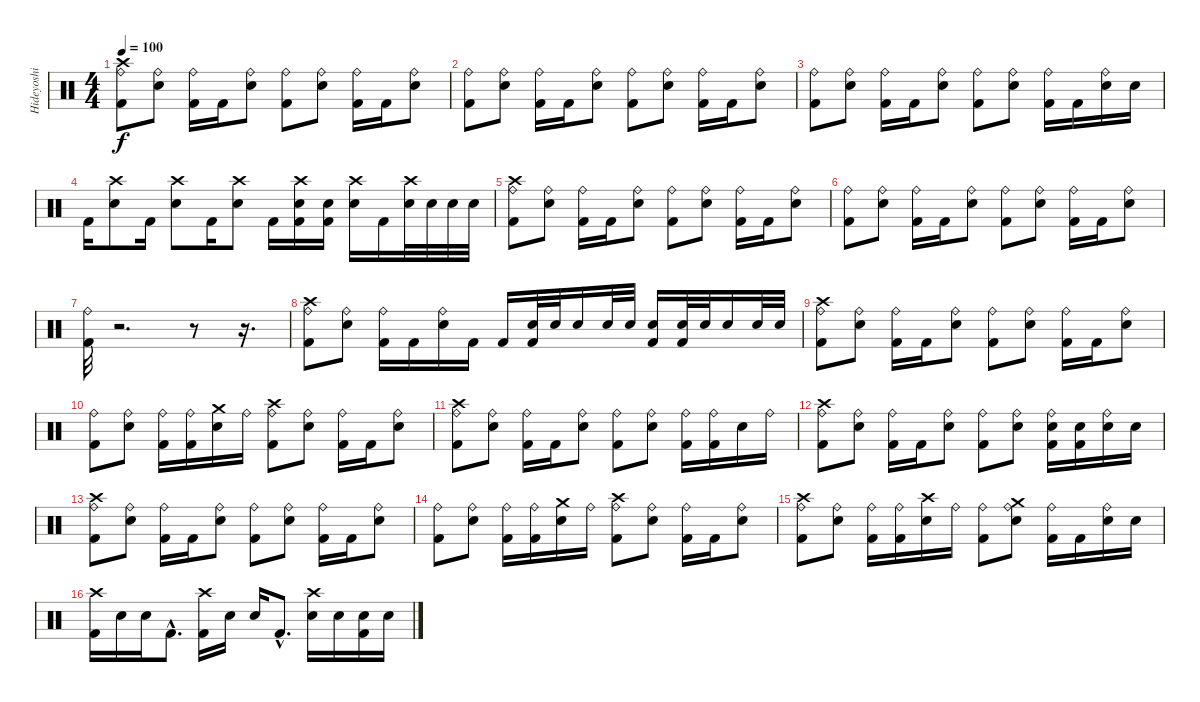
\track ("Hideyoshi" "Hideyoshi") {instrument percussion}
\staff {score}
\articulation defaults
\ts (4 4)
\tempo 100
\clef neutral
\ks c
("Crash high (hit)" "Kick (hit) 2" "Ride (bell)").8{dy f} ("Snare (hit) 2" "Ride (bell)").8 ("Kick (hit) 2" "Ride (bell)").16 "Kick (hit) 2".16 ("Snare (hit) 2" "Ride (bell)").8 ("Kick (hit) 2" "Ride (bell)").8 ("Snare (hit) 2" "Ride (bell)").8 ("Kick (hit) 2" "Ride (bell)").16 "Kick (hit) 2".16 ("Snare (hit) 2" "Ride (bell)").8 |
("Kick (hit) 2" "Ride (bell)").8 ("Snare (hit) 2" "Ride (bell)").8 ("Kick (hit) 2" "Ride (bell)").16 "Kick (hit) 2".16 ("Snare (hit) 2" "Ride (bell)").8 ("Kick (hit) 2" "Ride (bell)").8 ("Snare (hit) 2" "Ride (bell)").8 ("Kick (hit) 2" "Ride (bell)").16 "Kick (hit) 2".16 ("Snare (hit) 2" "Ride (bell)").8 |
("Kick (hit) 2" "Ride (bell)").8 ("Snare (hit) 2" "Ride (bell)").8 ("Kick (hit) 2" "Ride (bell)").16 "Kick (hit) 2".16 ("Snare (hit) 2" "Ride (bell)").8 ("Kick (hit) 2" "Ride (bell)").8 ("Snare (hit) 2" "Ride (bell)").8 ("Kick (hit) 2" "Ride (bell)").16 "Kick (hit) 2".16 ("Snare (hit) 2" "Ride (bell)").16 "Snare (hit) 2".16 |
"Kick (hit) 2".16 ("Snare (hit) 2" "Crash high (hit)").8 "Kick (hit) 2".16 ("Snare (hit) 2" "Crash high (hit)").8 "Kick (hit) 2".16 ("Snare (hit) 2" "Crash high (hit)").8 "Kick (hit) 2".16 ("Crash high (hit)" "Kick (hit) 2" "Snare (hit) 2").16 ("Snare (hit) 2" "Kick (hit) 2").16 ("Crash high (hit)" "Snare (hit) 2").16 "Kick (hit) 2".16 ("Crash high (hit)" "Snare (hit) 2").32 "Snare (hit) 2".32 "Snare (hit) 2".32 "Snare (hit) 2".32 |
("Crash high (hit)" "Kick (hit) 2" "Ride (bell)").8 ("Snare (hit) 2" "Ride (bell)").8 ("Kick (hit) 2" "Ride (bell)").16 "Kick (hit) 2".16 ("Snare (hit) 2" "Ride (bell)").8 ("Kick (hit) 2" "Ride (bell)").8 ("Snare (hit) 2" "Ride (bell)").8 ("Kick (hit) 2" "Ride (bell)").16 "Kick (hit) 2".16 ("Snare (hit) 2" "Ride (bell)").8 |
("Kick (hit) 2" "Ride (bell)").8 ("Snare (hit) 2" "Ride (bell)").8 ("Kick (hit) 2" "Ride (bell)").16 "Kick (hit) 2".16 ("Snare (hit) 2" "Ride (bell)").8 ("Kick (hit) 2" "Ride (bell)").8 ("Snare (hit) 2" "Ride (bell)").8 ("Kick (hit) 2" "Ride (bell)").16 "Kick (hit) 2".16 ("Snare (hit) 2" "Ride (bell)").8 |
("Kick (hit) 2" "Ride (bell)").32 r.2{d} r.8 r.16{d} |
("Crash high (hit)" "Ride (bell)" "Kick (hit) 2").8 ("Snare (hit) 2" "Ride (bell)").8 ("Kick (hit) 2" "Ride (bell)").16 "Kick (hit) 2".16 ("Snare (hit) 2" "Ride (bell)").16 "Kick (hit) 2".16 "Kick (hit) 2".16 ("Snare (hit) 2" "Kick (hit) 2").32 "Snare (hit) 2".32 "Snare (hit) 2".16 "Snare (hit) 2".32 "Snare (hit) 2".32 ("Snare (hit) 2" "Kick (hit) 2").16 ("Snare (hit) 2" "Kick (hit) 2").32 "Snare (hit) 2".32 "Snare (hit) 2".16 "Snare (hit) 2".32 "Snare (hit) 2".32 |
("Crash high (hit)" "Kick (hit) 2" "Ride (bell)").8 ("Snare (hit) 2" "Ride (bell)").8 ("Kick (hit) 2" "Ride (bell)").16 "Kick (hit) 2".16 ("Snare (hit) 2" "Ride (bell)").8 ("Kick (hit) 2" "Ride (bell)").8 ("Snare (hit) 2" "Ride (bell)").8 ("Kick (hit) 2" "Ride (bell)").16 "Kick (hit) 2".16 ("Snare (hit) 2" "Ride (bell)").8 |
("Kick (hit) 2" "Ride (bell)").8 ("Snare (hit) 2" "Ride (bell)").8 ("Kick (hit) 2" "Ride (bell)").16 ("Ride (bell)" "Kick (hit) 2").16 ("Crash medium (hit)" "Snare (hit) 2").16 "Ride (bell)".16 ("Crash high (hit)" "Kick (hit) 2" "Ride (bell)").8 ("Snare (hit) 2" "Ride (bell)").8 ("Kick (hit) 2" "Ride (bell)").16 "Kick (hit) 2".16 ("Snare (hit) 2" "Ride (bell)").8 |
("Crash high (hit)" "Kick (hit) 2" "Ride (bell)").8 ("Snare (hit) 2" "Ride (bell)").8 ("Kick (hit) 2" "Ride (bell)").16 "Kick (hit) 2".16 ("Snare (hit) 2" "Ride (bell)").8 ("Kick (hit) 2" "Ride (bell)").8 ("Snare (hit) 2" "Ride (bell)").8 ("Kick (hit) 2" "Ride (bell)").16 ("Ride (bell)" "Kick (hit) 2").16 "Snare (hit) 2".16 "Ride (bell)".16 |
("Crash high (hit)" "Kick (hit) 2" "Ride (bell)").8 ("Snare (hit) 2" "Ride (bell)").8 ("Kick (hit) 2" "Ride (bell)").16 "Kick (hit) 2".16 ("Snare (hit) 2" "Ride (bell)").8 ("Kick (hit) 2" "Ride (bell)").8 ("Snare (hit) 2" "Ride (bell)").8 ("Snare (hit) 2" "Kick (hit) 2" "Ride (bell)").16 ("Snare (hit) 2" "Kick (hit) 2").16 ("Snare (hit) 2" "Ride (bell)").16 "Snare (hit) 2".16 |
("Crash high (hit)" "Kick (hit) 2" "Ride (bell)").8 ("Snare (hit) 2" "Ride (bell)").8 ("Kick (hit) 2" "Ride (bell)").16 "Kick (hit) 2".16 ("Snare (hit) 2" "Ride (bell)").8 ("Kick (hit) 2" "Ride (bell)").8 ("Snare (hit) 2" "Ride (bell)").8 ("Kick (hit) 2" "Ride (bell)").16 "Kick (hit) 2".16 ("Snare (hit) 2" "Ride (bell)").8 |
("Kick (hit) 2" "Ride (bell)").8 ("Snare (hit) 2" "Ride (bell)").8 ("Kick (hit) 2" "Ride (bell)").16 ("Ride (bell)" "Kick (hit) 2").16 ("Crash medium (hit)" "Snare (hit) 2").16 "Ride (bell)".16 ("Crash high (hit)" "Kick (hit) 2" "Ride (bell)").8 ("Snare (hit) 2" "Ride (bell)").8 ("Kick (hit) 2" "Ride (bell)").16 "Kick (hit) 2".16 ("Snare (hit) 2" "Ride (bell)").8 |
("Crash high (hit)" "Kick (hit) 2" "Ride (bell)").8 ("Snare (hit) 2" "Ride (bell)").8 ("Kick (hit) 2" "Ride (bell)").16 ("Ride (bell)" "Kick (hit) 2").16 ("Crash high (hit)" "Snare (hit) 2").16 "Ride (bell)".16 ("Kick (hit) 2" "Ride (bell)").8 ("Crash medium (hit)" "Snare (hit) 2" "Ride (bell)").8 ("Kick (hit) 2" "Ride (bell)").16 "Kick (hit) 2".16 ("Snare (hit) 2" "Ride (bell)").16 "Snare (hit) 2".16 |
("Crash high (hit)" "Kick (hit) 2").16 "Snare (hit) 2".16 "Snare (hit) 2".16 "Kick (hit) 2"{hac}.8{d} ("Crash high (hit)" "Kick (hit) 2").16 "Snare (hit) 2".16 "Snare (hit) 2".16 "Kick (hit) 2"{hac}.8{d} ("Crash high (hit)" "Snare (hit) 2").16 "Snare (hit) 2".16 ("Snare (hit) 2" "Kick (hit) 2").16 "Snare (hit) 2".16
